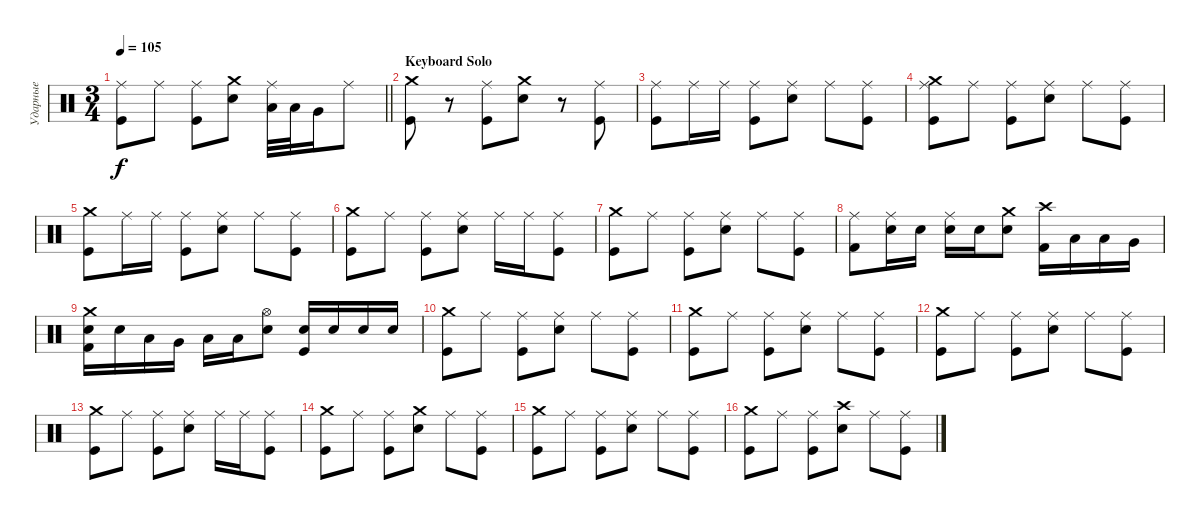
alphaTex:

\track ("Ударные" "Ударные") {instrument percussion}
\staff {score}
\articulation defaults
\ts (3 4)
\tempo 105
\clef neutral
\barLineRight lightlight
\ks c
("Ride (middle)" "Kick (hit)").8{dy f} "Ride (middle)".8 ("Ride (middle)" "Kick (hit)").8 ("Crash medium (hit)" "Electric Snare (hit)").8 ("Ride (middle)" "Low Tom (hit)").32 "Low Tom (hit)".32 "Very Low Tom (hit)".16 "Ride (middle)".8 |
\section ("" "Keyboard Solo")
("Crash medium (hit)" "Kick (hit)").8 r.8 ("Ride (middle)" "Kick (hit)").8 ("Crash medium (hit)" "Electric Snare (hit)").8 r.8 ("Ride (middle)" "Kick (hit)").8 |
("Ride (middle)" "Kick (hit)").8 "Ride (middle)".16 "Ride (middle)".16 ("Ride (middle)" "Kick (hit)").8 ("Ride (middle)" "Electric Snare (hit)").8 "Ride (middle)".8 ("Ride (middle)" "Kick (hit)").8 |
("Ride (middle)" "Crash medium (hit)" "Kick (hit)").8 "Ride (middle)".8 ("Ride (middle)" "Kick (hit)").8 ("Ride (middle)" "Electric Snare (hit)").8 "Ride (middle)".8 ("Ride (middle)" "Kick (hit)").8 |
("Crash medium (hit)" "Kick (hit)").8 "Ride (middle)".16 "Ride (middle)".16 ("Ride (middle)" "Kick (hit)").8 ("Ride (middle)" "Electric Snare (hit)").8 "Ride (middle)".8 ("Ride (middle)" "Kick (hit)").8 |
("Crash medium (hit)" "Kick (hit)").8 "Ride (middle)".8 ("Ride (middle)" "Kick (hit)").8 ("Ride (middle)" "Electric Snare (hit)").8 "Ride (middle)".16 "Ride (middle)".16 ("Ride (middle)" "Kick (hit)").8 |
("Crash medium (hit)" "Kick (hit)").8 "Ride (middle)".8 ("Ride (middle)" "Kick (hit)").8 ("Ride (middle)" "Electric Snare (hit)").8 "Ride (middle)".8 ("Ride (middle)" "Kick (hit)").8 |
("Ride (middle)" "Kick (hit) 2").8 ("Ride (middle)" "Electric Snare (hit)").16 "Electric Snare (hit)".16 ("Ride (middle)" "Electric Snare (hit)").16 "Electric Snare (hit)".16 ("Crash medium (hit)" "Electric Snare (hit)").8 ("Crash high (hit)" "Kick (hit) 2").16 "Low Tom (hit)".16 "Low Tom (hit)".16 "Very Low Tom (hit)".16 |
("Crash medium (hit)" "Electric Snare (hit)" "Kick (hit) 2").16 "Electric Snare (hit)".16 "Low Tom (hit)".16 "Very Low Tom (hit)".16 "Low Floor Tom (hit)".16 "Low Floor Tom (hit)".16 ("Hi-Hat (open)" "Electric Snare (hit)").8 ("Electric Snare (hit)" "Kick (hit)").16 "Electric Snare (hit)".16 "Electric Snare (hit)".16 "Electric Snare (hit)".16 |
("Crash medium (hit)" "Kick (hit)").8 "Ride (middle)".8 ("Ride (middle)" "Kick (hit)").8 ("Ride (middle)" "Electric Snare (hit)").8 "Ride (middle)".8 ("Ride (middle)" "Kick (hit)").8 |
("Crash medium (hit)" "Kick (hit)").8 "Ride (middle)".8 ("Ride (middle)" "Kick (hit)").8 ("Ride (middle)" "Electric Snare (hit)").8 "Ride (middle)".8 ("Ride (middle)" "Kick (hit)").8 |
("Crash medium (hit)" "Kick (hit)").8 "Ride (middle)".8 ("Ride (middle)" "Kick (hit)").8 ("Ride (middle)" "Electric Snare (hit)").8 "Ride (middle)".8 ("Ride (middle)" "Kick (hit)").8 |
("Crash medium (hit)" "Kick (hit)").8 "Ride (middle)".8 ("Ride (middle)" "Kick (hit)").8 ("Ride (middle)" "Electric Snare (hit)").8 "Ride (middle)".16 "Ride (middle)".16 ("Ride (middle)" "Kick (hit)").8 |
("Crash medium (hit)" "Kick (hit)").8 "Ride (middle)".8 ("Ride (middle)" "Kick (hit)").8 ("Crash medium (hit)" "Electric Snare (hit)").8 "Ride (middle)".8 ("Ride (middle)" "Kick (hit)").8 |
("Crash medium (hit)" "Kick (hit)").8 "Ride (middle)".8 ("Ride (middle)" "Kick (hit)").8 ("Ride (middle)" "Electric Snare (hit)").8 "Ride (middle)".8 ("Ride (middle)" "Kick (hit)").8 |
("Crash medium (hit)" "Kick (hit)").8 "Ride (middle)".8 ("Ride (middle)" "Kick (hit)").8 ("Crash high (hit)" "Electric Snare (hit)").8 "Ride (middle)".8 ("Ride (middle)" "Kick (hit)").8
